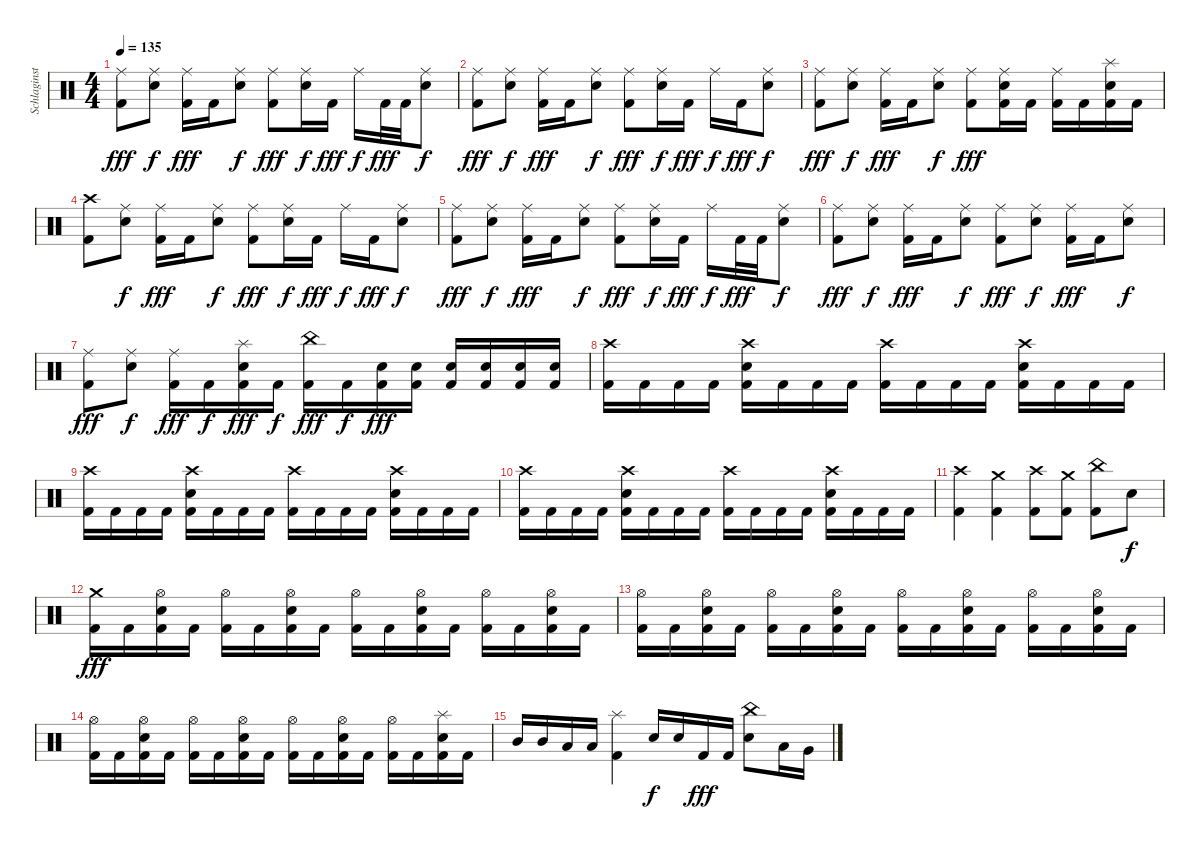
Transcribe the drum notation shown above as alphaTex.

\track ("Schlaginstrumente - Auswahl" "Schlaginst") {instrument percussion}
\staff {score}
\articulation defaults
\ts (4 4)
\tempo 135
\clef neutral
\ks c
("Ride (middle)" "Kick (hit) 2").8{dy fff} ("Ride (middle)" "Snare (hit) 2").8{dy f} ("Ride (middle)" "Kick (hit) 2").16{dy fff} "Kick (hit) 2".16 ("Ride (middle)" "Snare (hit) 2").8{dy f} ("Ride (middle)" "Kick (hit) 2").8{dy fff} ("Ride (middle)" "Snare (hit) 2").16{dy f} "Kick (hit) 2".16{dy fff} "Ride (middle)".16{dy f} "Kick (hit) 2".32{dy fff} "Kick (hit) 2".32 ("Ride (middle)" "Snare (hit) 2").8{dy f} |
("Ride (middle)" "Kick (hit) 2").8{dy fff} ("Ride (middle)" "Snare (hit) 2").8{dy f} ("Ride (middle)" "Kick (hit) 2").16{dy fff} "Kick (hit) 2".16 ("Ride (middle)" "Snare (hit) 2").8{dy f} ("Ride (middle)" "Kick (hit) 2").8{dy fff} ("Ride (middle)" "Snare (hit) 2").16{dy f} "Kick (hit) 2".16{dy fff} "Ride (middle)".16{dy f} "Kick (hit) 2".16{dy fff} ("Ride (middle)" "Snare (hit) 2").8{dy f} |
("Ride (middle)" "Kick (hit) 2").8{dy fff} ("Ride (middle)" "Snare (hit) 2").8{dy f} ("Ride (middle)" "Kick (hit) 2").16{dy fff} "Kick (hit) 2".16 ("Ride (middle)" "Snare (hit) 2").8{dy f} ("Ride (middle)" "Kick (hit) 2").8{dy fff} ("Ride (middle)" "Snare (hit) 2" "Kick (hit) 2").16 "Kick (hit) 2".16 ("Ride (middle)" "Kick (hit) 2").16 "Kick (hit) 2".16 ("Splash (hit)" "Snare (hit) 2" "Kick (hit) 2").16 "Kick (hit) 2".16 |
("Crash high (hit)" "Kick (hit) 2").8 ("Ride (middle)" "Snare (hit) 2").8{dy f} ("Ride (middle)" "Kick (hit) 2").16{dy fff} "Kick (hit) 2".16 ("Ride (middle)" "Snare (hit) 2").8{dy f} ("Ride (middle)" "Kick (hit) 2").8{dy fff} ("Ride (middle)" "Snare (hit) 2").16{dy f} "Kick (hit) 2".16{dy fff} "Ride (middle)".16{dy f} "Kick (hit) 2".16{dy fff} ("Ride (middle)" "Snare (hit) 2").8{dy f} |
("Ride (middle)" "Kick (hit) 2").8{dy fff} ("Ride (middle)" "Snare (hit) 2").8{dy f} ("Ride (middle)" "Kick (hit) 2").16{dy fff} "Kick (hit) 2".16 ("Ride (middle)" "Snare (hit) 2").8{dy f} ("Ride (middle)" "Kick (hit) 2").8{dy fff} ("Ride (middle)" "Snare (hit) 2").16{dy f} "Kick (hit) 2".16{dy fff} "Ride (middle)".16{dy f} "Kick (hit) 2".32{dy fff} "Kick (hit) 2".32 ("Ride (middle)" "Snare (hit) 2").8{dy f} |
("Ride (middle)" "Kick (hit) 2").8{dy fff} ("Ride (middle)" "Snare (hit) 2").8{dy f} ("Ride (middle)" "Kick (hit) 2").16{dy fff} "Kick (hit) 2".16 ("Ride (middle)" "Snare (hit) 2").8{dy f} ("Ride (middle)" "Kick (hit) 2").8{dy fff} ("Ride (middle)" "Snare (hit) 2").8{dy f} ("Ride (middle)" "Kick (hit) 2").16{dy fff} "Kick (hit) 2".16 ("Ride (middle)" "Snare (hit) 2").8{dy f} |
("Ride (middle)" "Kick (hit) 2").8{dy fff} ("Ride (middle)" "Snare (hit) 2").8{dy f} ("Ride (middle)" "Kick (hit) 2").16{dy fff} "Kick (hit) 2".16{dy f} ("Splash (hit)" "Snare (hit) 2" "Kick (hit) 2").16{dy fff} "Kick (hit) 2".16{dy f} ("China (hit)" "Kick (hit) 2").16{dy fff} "Kick (hit) 2".16{dy f} ("Snare (hit) 2" "Kick (hit) 2").16{dy fff} ("Snare (hit) 2" "Kick (hit) 2").16 ("Snare (hit) 2" "Kick (hit) 2").16 ("Snare (hit) 2" "Kick (hit) 2").16 ("Snare (hit) 2" "Kick (hit) 2").16 ("Snare (hit) 2" "Kick (hit) 2").16 |
("Crash high (hit)" "Kick (hit) 2").16 "Kick (hit) 2".16 "Kick (hit) 2".16 "Kick (hit) 2".16 ("Crash high (hit)" "Snare (hit) 2" "Kick (hit) 2").16 "Kick (hit) 2".16 "Kick (hit) 2".16 "Kick (hit) 2".16 ("Crash high (hit)" "Kick (hit) 2").16 "Kick (hit) 2".16 "Kick (hit) 2".16 "Kick (hit) 2".16 ("Crash high (hit)" "Snare (hit) 2" "Kick (hit) 2").16 "Kick (hit) 2".16 "Kick (hit) 2".16 "Kick (hit) 2".16 |
("Crash high (hit)" "Kick (hit) 2").16 "Kick (hit) 2".16 "Kick (hit) 2".16 "Kick (hit) 2".16 ("Crash high (hit)" "Snare (hit) 2" "Kick (hit) 2").16 "Kick (hit) 2".16 "Kick (hit) 2".16 "Kick (hit) 2".16 ("Crash high (hit)" "Kick (hit) 2").16 "Kick (hit) 2".16 "Kick (hit) 2".16 "Kick (hit) 2".16 ("Crash high (hit)" "Snare (hit) 2" "Kick (hit) 2").16 "Kick (hit) 2".16 "Kick (hit) 2".16 "Kick (hit) 2".16 |
("Crash high (hit)" "Kick (hit) 2").16 "Kick (hit) 2".16 "Kick (hit) 2".16 "Kick (hit) 2".16 ("Crash high (hit)" "Snare (hit) 2" "Kick (hit) 2").16 "Kick (hit) 2".16 "Kick (hit) 2".16 "Kick (hit) 2".16 ("Crash high (hit)" "Kick (hit) 2").16 "Kick (hit) 2".16 "Kick (hit) 2".16 "Kick (hit) 2".16 ("Crash high (hit)" "Snare (hit) 2" "Kick (hit) 2").16 "Kick (hit) 2".16 "Kick (hit) 2".16 "Kick (hit) 2".16 |
("Crash high (hit)" "Kick (hit) 2").4 ("Crash medium (hit)" "Kick (hit) 2").4 ("Crash high (hit)" "Kick (hit) 2").8 ("Crash medium (hit)" "Kick (hit) 2").8 ("China (hit)" "Kick (hit) 2").8 "Snare (hit) 2".8{dy f} |
("Crash medium (hit)" "Kick (hit) 2").16{dy fff} "Kick (hit) 2".16 ("Hi-Hat (open)" "Snare (hit) 2" "Kick (hit) 2").16 "Kick (hit) 2".16 ("Hi-Hat (open)" "Kick (hit) 2").16 "Kick (hit) 2".16 ("Hi-Hat (open)" "Snare (hit) 2" "Kick (hit) 2").16 "Kick (hit) 2".16 ("Hi-Hat (open)" "Kick (hit) 2").16 "Kick (hit) 2".16 ("Hi-Hat (open)" "Snare (hit) 2" "Kick (hit) 2").16 "Kick (hit) 2".16 ("Hi-Hat (open)" "Kick (hit) 2").16 "Kick (hit) 2".16 ("Hi-Hat (open)" "Snare (hit) 2" "Kick (hit) 2").16 "Kick (hit) 2".16 |
("Hi-Hat (open)" "Kick (hit) 2").16 "Kick (hit) 2".16 ("Hi-Hat (open)" "Snare (hit) 2" "Kick (hit) 2").16 "Kick (hit) 2".16 ("Hi-Hat (open)" "Kick (hit) 2").16 "Kick (hit) 2".16 ("Hi-Hat (open)" "Snare (hit) 2" "Kick (hit) 2").16 "Kick (hit) 2".16 ("Hi-Hat (open)" "Kick (hit) 2").16 "Kick (hit) 2".16 ("Hi-Hat (open)" "Snare (hit) 2" "Kick (hit) 2").16 "Kick (hit) 2".16 ("Hi-Hat (open)" "Kick (hit) 2").16 "Kick (hit) 2".16 ("Hi-Hat (open)" "Snare (hit) 2" "Kick (hit) 2").16 "Kick (hit) 2".16 |
("Hi-Hat (open)" "Kick (hit) 2").16 "Kick (hit) 2".16 ("Hi-Hat (open)" "Snare (hit) 2" "Kick (hit) 2").16 "Kick (hit) 2".16 ("Hi-Hat (open)" "Kick (hit) 2").16 "Kick (hit) 2".16 ("Hi-Hat (open)" "Snare (hit) 2" "Kick (hit) 2").16 "Kick (hit) 2".16 ("Hi-Hat (open)" "Kick (hit) 2").16 "Kick (hit) 2".16 ("Hi-Hat (open)" "Snare (hit) 2" "Kick (hit) 2").16 "Kick (hit) 2".16 ("Hi-Hat (open)" "Kick (hit) 2").16 "Kick (hit) 2".16 ("Splash (hit)" "Snare (hit) 2" "Kick (hit) 2").16 "Kick (hit) 2".16 |
"Mid Tom (hit)".16 "Mid Tom (hit)".16 "Low Tom (hit)".16 "Low Tom (hit)".16 ("Splash (hit)" "Kick (hit) 2").4 "Snare (hit) 2".16{dy f} "Snare (hit) 2".16 "Kick (hit) 2".16{dy fff} "Kick (hit) 2".16 ("China (hit)" "Snare (hit) 2").8 "Low Floor Tom (hit)".16 "Very Low Tom (hit)".16
